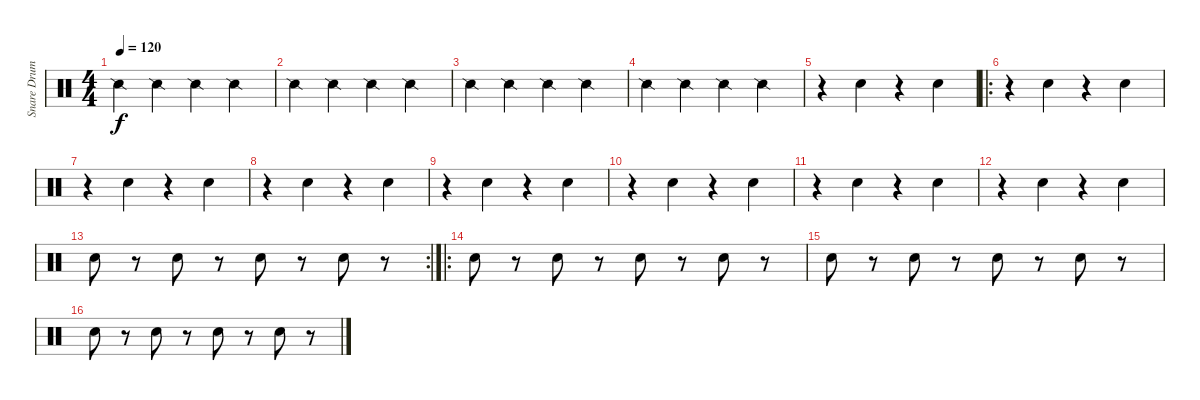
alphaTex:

\track ("Snare Drum" "Snare Drum") {instrument percussion}
\staff {score}
\articulation defaults
\ts (4 4)
\tempo 120
\clef neutral
\ks c "Snare (side stick) 2".4{dy f} "Snare (side stick) 2".4 "Snare (side stick) 2".4 "Snare (side stick) 2".4
|
"Snare (side stick) 2".4 "Snare (side stick) 2".4 "Snare (side stick) 2".4 "Snare (side stick) 2".4 |
"Snare (side stick) 2".4 "Snare (side stick) 2".4 "Snare (side stick) 2".4 "Snare (side stick) 2".4 |
"Snare (side stick) 2".4 "Snare (side stick) 2".4 "Snare (side stick) 2".4 "Snare (side stick) 2".4 |
r.4 "Snare (hit) 2".4 r.4 "Snare (hit) 2".4 |
\ro
r.4 "Snare (hit) 2".4 r.4 "Snare (hit) 2".4 |
r.4 "Snare (hit) 2".4 r.4 "Snare (hit) 2".4 |
r.4 "Snare (hit) 2".4 r.4 "Snare (hit) 2".4 |
r.4 "Snare (hit) 2".4 r.4 "Snare (hit) 2".4 |
r.4 "Snare (hit) 2".4 r.4 "Snare (hit) 2".4 |
r.4 "Snare (hit) 2".4 r.4 "Snare (hit) 2".4 |
r.4 "Snare (hit) 2".4 r.4 "Snare (hit) 2".4 |
\rc 2 "Electric Snare (hit)".8
r.8 "Electric Snare (hit)".8 r.8 "Electric Snare (hit)".8 r.8 "Electric Snare (hit)".8 r.8 |
\ro "Electric Snare (hit)".8
r.8 "Electric Snare (hit)".8 r.8 "Electric Snare (hit)".8 r.8 "Electric Snare (hit)".8 r.8 |
"Electric Snare (hit)".8 r.8 "Electric Snare (hit)".8 r.8 "Electric Snare (hit)".8 r.8 "Electric Snare (hit)".8 r.8 |
"Electric Snare (hit)".8 r.8 "Electric Snare (hit)".8 r.8 "Electric Snare (hit)".8 r.8 "Electric Snare (hit)".8 r.8
